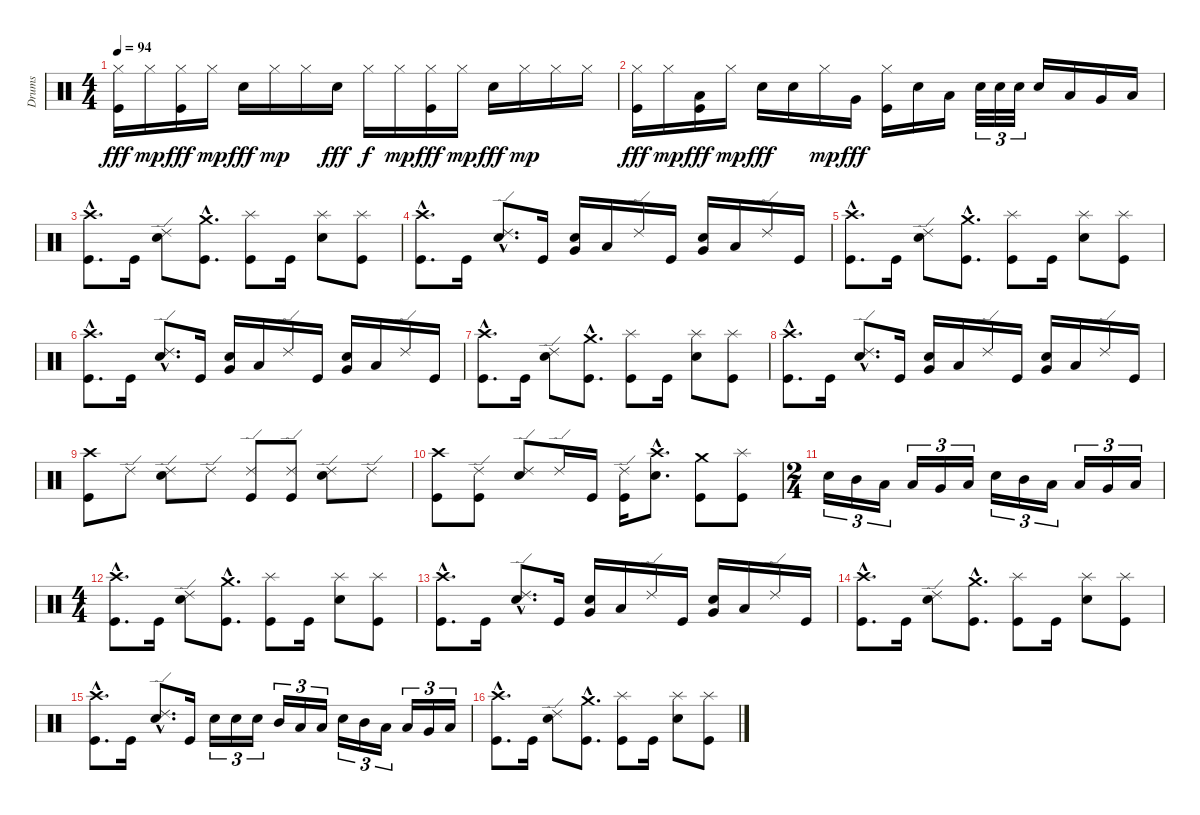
\track ("Drums" "Drums") {instrument percussion}
\staff {score}
\articulation defaults
\ts (4 4)
\tempo 94
\clef neutral
\ks c
("Hi-Hat (closed)" "Kick (hit)").16{dy fff} "Hi-Hat (closed)".16{dy mp} ("Hi-Hat (closed)" "Kick (hit)").16{dy fff} "Hi-Hat (closed)".16{dy mp} "Snare (hit) 2".16{dy fff} "Hi-Hat (closed)".16{dy mp} "Hi-Hat (closed)".16 "Snare (hit) 2".16{dy fff} "Hi-Hat (closed)".16{dy f} "Hi-Hat (closed)".16{dy mp} ("Hi-Hat (closed)" "Kick (hit)").16{dy fff} "Hi-Hat (closed)".16{dy mp} "Snare (hit) 2".16{dy fff} "Hi-Hat (closed)".16{dy mp} "Hi-Hat (closed)".16 "Hi-Hat (closed)".16 |
("Hi-Hat (closed)" "Kick (hit)").16{dy fff} "Hi-Hat (closed)".16{dy mp} ("Low Tom (hit)" "Kick (hit)").16{dy fff} "Hi-Hat (closed)".16{dy mp} "Snare (hit) 2".16{dy fff} "Snare (hit) 2".16 "Hi-Hat (closed)".16{dy mp} "Very Low Tom (hit)".16{dy fff} ("Hi-Hat (closed)" "Kick (hit)").16 "Snare (hit) 2".16 "Low Tom (hit)".16 "Snare (hit) 2".32{tu (3 2)} "Snare (hit) 2".32{tu (3 2)} "Snare (hit) 2".32{tu (3 2)} "Snare (hit) 2".16 "Low Tom (hit)".16 "Very Low Tom (hit)".16 "Low Floor Tom (hit)".16 |
("Crash high (hit)"{hac} "Kick (hit)"{hac}).8{d} "Kick (hit)".16 ("Ride (edge) 2" "Snare (hit) 2").8 ("Crash medium (hit)"{hac} "Kick (hit)"{hac}).8{d} ("Splash (hit)" "Kick (hit)").8 "Kick (hit)".16 ("Splash (hit)" "Snare (hit) 2").8 ("Splash (hit)" "Kick (hit)").8 |
("Crash high (hit)"{hac} "Kick (hit)"{hac}).8{d} "Kick (hit)".16 ("Ride (edge) 2"{hac} "Snare (hit) 2"{hac}).8{d} "Kick (hit)".16 ("Very Low Tom (hit)" "Snare (hit) 2").16 "Low Floor Tom (hit)".16 "Ride (edge) 2".16 "Kick (hit)".16 ("Very Low Tom (hit)" "Snare (hit) 2").16 "Low Floor Tom (hit)".16 "Ride (edge) 2".16 "Kick (hit)".16 |
("Crash high (hit)"{hac} "Kick (hit)"{hac}).8{d} "Kick (hit)".16 ("Ride (edge) 2" "Snare (hit) 2").8 ("Crash medium (hit)"{hac} "Kick (hit)"{hac}).8{d} ("Splash (hit)" "Kick (hit)").8 "Kick (hit)".16 ("Splash (hit)" "Snare (hit) 2").8 ("Splash (hit)" "Kick (hit)").8 |
("Crash high (hit)"{hac} "Kick (hit)"{hac}).8{d} "Kick (hit)".16 ("Ride (edge) 2"{hac} "Snare (hit) 2"{hac}).8{d} "Kick (hit)".16 ("Very Low Tom (hit)" "Snare (hit) 2").16 "Low Floor Tom (hit)".16 "Ride (edge) 2".16 "Kick (hit)".16 ("Very Low Tom (hit)" "Snare (hit) 2").16 "Low Floor Tom (hit)".16 "Ride (edge) 2".16 "Kick (hit)".16 |
("Crash high (hit)"{hac} "Kick (hit)"{hac}).8{d} "Kick (hit)".16 ("Ride (edge) 2" "Snare (hit) 2").8 ("Crash medium (hit)"{hac} "Kick (hit)"{hac}).8{d} ("Splash (hit)" "Kick (hit)").8 "Kick (hit)".16 ("Splash (hit)" "Snare (hit) 2").8 ("Splash (hit)" "Kick (hit)").8 |
("Crash high (hit)"{hac} "Kick (hit)"{hac}).8{d} "Kick (hit)".16 ("Ride (edge) 2"{hac} "Snare (hit) 2"{hac}).8{d} "Kick (hit)".16 ("Very Low Tom (hit)" "Snare (hit) 2").16 "Low Floor Tom (hit)".16 "Ride (edge) 2".16 "Kick (hit)".16 ("Very Low Tom (hit)" "Snare (hit) 2").16 "Low Floor Tom (hit)".16 "Ride (edge) 2".16 "Kick (hit)".16 |
("Crash high (hit)" "Kick (hit)").8 "Ride (edge) 2".8 ("Ride (edge) 2" "Snare (hit) 2").8 "Ride (edge) 2".8 ("Ride (edge) 2" "Kick (hit)").8 ("Ride (edge) 2" "Kick (hit)").8 ("Ride (edge) 2" "Snare (hit) 2").8 "Ride (edge) 2".8 |
("Crash high (hit)" "Kick (hit)").8 ("Ride (edge) 2" "Kick (hit)").8 ("Ride (edge) 2" "Snare (hit) 2").8 "Ride (edge) 2".16 "Kick (hit)".16 ("Ride (edge) 2" "Kick (hit)").16 ("Crash high (hit)"{hac} "Snare (hit) 2"{hac}).8{d} ("Crash medium (hit)" "Kick (hit)").8 ("Splash (hit)" "Kick (hit)").8 |
\ts (2 4)
"Snare (hit) 2".16{tu (3 2)} "Mid Tom (hit)".16{tu (3 2)} "Low Tom (hit)".16{tu (3 2)} "Low Tom (hit)".16{tu (3 2)} "Very Low Tom (hit)".16{tu (3 2)} "Low Floor Tom (hit)".16{tu (3 2)} "Snare (hit) 2".16{tu (3 2)} "Mid Tom (hit)".16{tu (3 2)} "Low Tom (hit)".16{tu (3 2)} "Low Tom (hit)".16{tu (3 2)} "Very Low Tom (hit)".16{tu (3 2)} "Low Floor Tom (hit)".16{tu (3 2)} |
\ts (4 4)
("Crash high (hit)"{hac} "Kick (hit)"{hac}).8{d} "Kick (hit)".16 ("Ride (edge) 2" "Snare (hit) 2").8 ("Crash medium (hit)"{hac} "Kick (hit)"{hac}).8{d} ("Splash (hit)" "Kick (hit)").8 "Kick (hit)".16 ("Splash (hit)" "Snare (hit) 2").8 ("Splash (hit)" "Kick (hit)").8 |
("Crash high (hit)"{hac} "Kick (hit)"{hac}).8{d} "Kick (hit)".16 ("Ride (edge) 2"{hac} "Snare (hit) 2"{hac}).8{d} "Kick (hit)".16 ("Very Low Tom (hit)" "Snare (hit) 2").16 "Low Floor Tom (hit)".16 "Ride (edge) 2".16 "Kick (hit)".16 ("Very Low Tom (hit)" "Snare (hit) 2").16 "Low Floor Tom (hit)".16 "Ride (edge) 2".16 "Kick (hit)".16 |
("Crash high (hit)"{hac} "Kick (hit)"{hac}).8{d} "Kick (hit)".16 ("Ride (edge) 2" "Snare (hit) 2").8 ("Crash medium (hit)"{hac} "Kick (hit)"{hac}).8{d} ("Splash (hit)" "Kick (hit)").8 "Kick (hit)".16 ("Splash (hit)" "Snare (hit) 2").8 ("Splash (hit)" "Kick (hit)").8 |
("Crash high (hit)"{hac} "Kick (hit)"{hac}).8{d} "Kick (hit)".16 ("Ride (edge) 2"{hac} "Snare (hit) 2"{hac}).8{d} "Kick (hit)".16 "Snare (hit) 2".16{tu (3 2)} "Snare (hit) 2".16{tu (3 2)} "Snare (hit) 2".16{tu (3 2)} "Mid Tom (hit)".16{tu (3 2)} "Low Tom (hit)".16{tu (3 2)} "Low Tom (hit)".16{tu (3 2)} "Snare (hit) 2".16{tu (3 2)} "Mid Tom (hit)".16{tu (3 2)} "Low Tom (hit)".16{tu (3 2)} "Low Tom (hit)".16{tu (3 2)} "Very Low Tom (hit)".16{tu (3 2)} "Low Floor Tom (hit)".16{tu (3 2)} |
("Crash high (hit)"{hac} "Kick (hit)"{hac}).8{d} "Kick (hit)".16 ("Ride (edge) 2" "Snare (hit) 2").8 ("Crash medium (hit)"{hac} "Kick (hit)"{hac}).8{d} ("Splash (hit)" "Kick (hit)").8 "Kick (hit)".16 ("Splash (hit)" "Snare (hit) 2").8 ("Splash (hit)" "Kick (hit)").8
